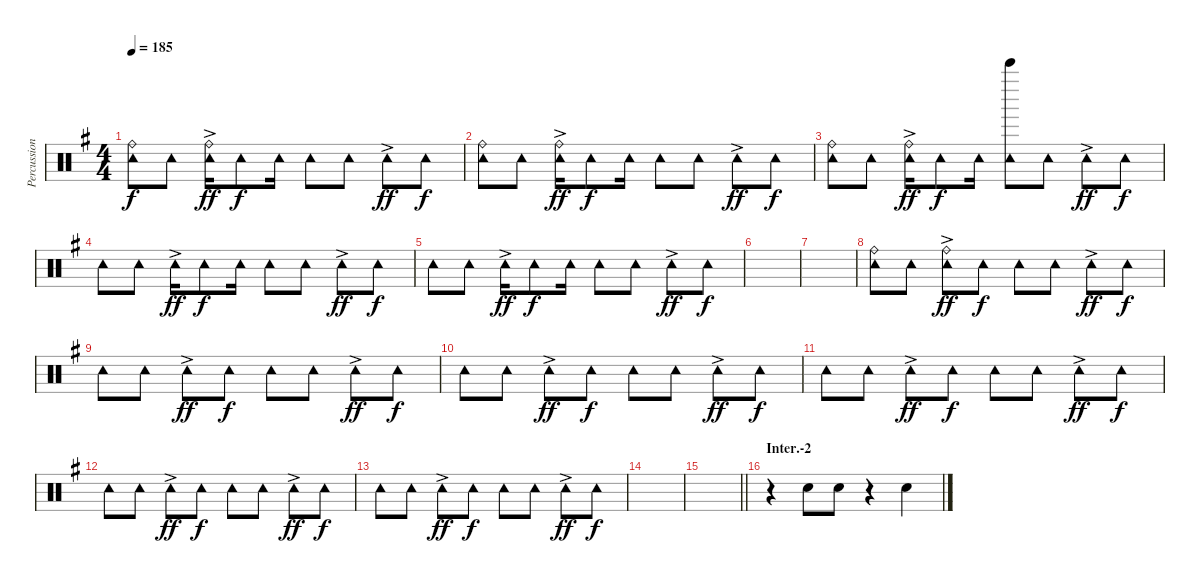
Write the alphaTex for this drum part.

\track ("Percussion I" "Percussion") {instrument percussion}
\staff {score}
\articulation defaults
\ts (4 4)
\tempo 185
\clef neutral
\ks g
("Ride (bell)" "Tambourine (hit)").8{dy f} "Tambourine (hit)".8 ("Ride (bell)" "Tambourine (hit)"{ac}).16{dy ff} "Tambourine (hit)".8{dy f} "Tambourine (hit)".16 "Tambourine (hit)".8 "Tambourine (hit)".8 "Tambourine (hit)"{ac}.8{dy ff} "Tambourine (hit)".8{dy f} |
("Ride (bell)" "Tambourine (hit)").8 "Tambourine (hit)".8 ("Ride (bell)" "Tambourine (hit)"{ac}).16{dy ff} "Tambourine (hit)".8{dy f} "Tambourine (hit)".16 "Tambourine (hit)".8 "Tambourine (hit)".8 "Tambourine (hit)"{ac}.8{dy ff} "Tambourine (hit)".8{dy f} |
("Ride (bell)" "Tambourine (hit)").8 "Tambourine (hit)".8 ("Ride (bell)" "Tambourine (hit)"{ac}).16{dy ff} "Tambourine (hit)".8{dy f} "Tambourine (hit)".16 ("Tambourine (hit)" "Bell Tree (hit)").8 "Tambourine (hit)".8 "Tambourine (hit)"{ac}.8{dy ff} "Tambourine (hit)".8{dy f} |
"Tambourine (hit)".8 "Tambourine (hit)".8 "Tambourine (hit)"{ac}.16{dy ff} "Tambourine (hit)".8{dy f} "Tambourine (hit)".16 "Tambourine (hit)".8 "Tambourine (hit)".8 "Tambourine (hit)"{ac}.8{dy ff} "Tambourine (hit)".8{dy f} |
"Tambourine (hit)".8 "Tambourine (hit)".8 "Tambourine (hit)"{ac}.16{dy ff} "Tambourine (hit)".8{dy f} "Tambourine (hit)".16 "Tambourine (hit)".8 "Tambourine (hit)".8 "Tambourine (hit)"{ac}.8{dy ff} "Tambourine (hit)".8{dy f} |
|
|
("Ride (bell)" "Tambourine (hit)").8 "Tambourine (hit)".8 ("Ride (bell)" "Tambourine (hit)"{ac}).8{dy ff} "Tambourine (hit)".8{dy f} "Tambourine (hit)".8 "Tambourine (hit)".8 "Tambourine (hit)"{ac}.8{dy ff} "Tambourine (hit)".8{dy f} |
"Tambourine (hit)".8 "Tambourine (hit)".8 "Tambourine (hit)"{ac}.8{dy ff} "Tambourine (hit)".8{dy f} "Tambourine (hit)".8 "Tambourine (hit)".8 "Tambourine (hit)"{ac}.8{dy ff} "Tambourine (hit)".8{dy f} |
"Tambourine (hit)".8 "Tambourine (hit)".8 "Tambourine (hit)"{ac}.8{dy ff} "Tambourine (hit)".8{dy f} "Tambourine (hit)".8 "Tambourine (hit)".8 "Tambourine (hit)"{ac}.8{dy ff} "Tambourine (hit)".8{dy f} |
"Tambourine (hit)".8 "Tambourine (hit)".8 "Tambourine (hit)"{ac}.8{dy ff} "Tambourine (hit)".8{dy f} "Tambourine (hit)".8 "Tambourine (hit)".8 "Tambourine (hit)"{ac}.8{dy ff} "Tambourine (hit)".8{dy f} |
"Tambourine (hit)".8 "Tambourine (hit)".8 "Tambourine (hit)"{ac}.8{dy ff} "Tambourine (hit)".8{dy f} "Tambourine (hit)".8 "Tambourine (hit)".8 "Tambourine (hit)"{ac}.8{dy ff} "Tambourine (hit)".8{dy f} |
"Tambourine (hit)".8 "Tambourine (hit)".8 "Tambourine (hit)"{ac}.8{dy ff} "Tambourine (hit)".8{dy f} "Tambourine (hit)".8 "Tambourine (hit)".8 "Tambourine (hit)"{ac}.8{dy ff} "Tambourine (hit)".8{dy f} |
|
\barLineRight lightlight
|
\section ("" "Inter.-2")
r.4 "Hand Clap (hit)".8 "Hand Clap (hit)".8 r.4 "Hand Clap (hit)".4
